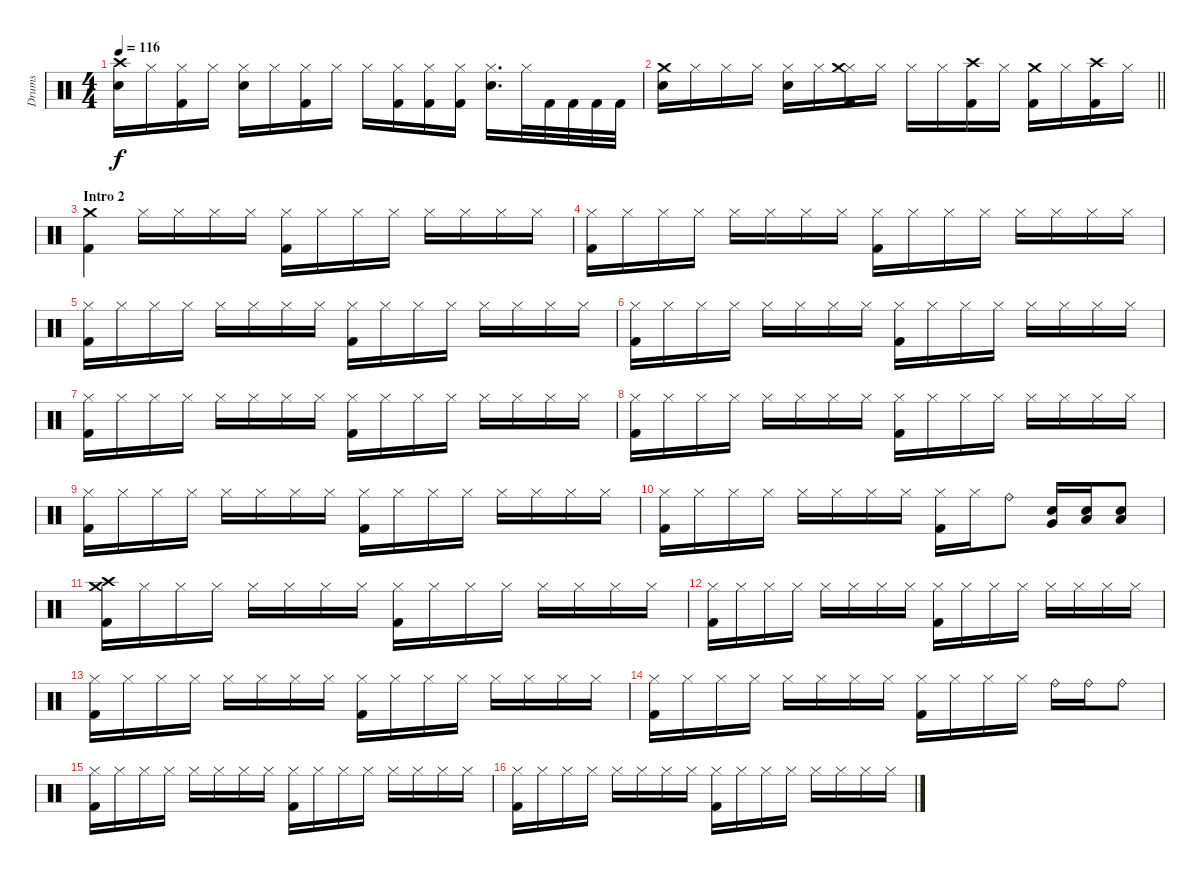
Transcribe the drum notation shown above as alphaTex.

\track ("Drums" "Drums") {instrument percussion}
\staff {score}
\articulation defaults
\ts (4 4)
\tempo 116
\clef neutral
\ks c
("Snare (hit) 2" "Crash high (hit)").16{dy f} "Hi-Hat (closed)".16 ("Hi-Hat (closed)" "Kick (hit) 2").16 "Hi-Hat (closed)".16 ("Hi-Hat (closed)" "Snare (hit) 2").16 "Hi-Hat (closed)".16 ("Hi-Hat (closed)" "Kick (hit) 2").16 "Hi-Hat (closed)".16 "Hi-Hat (closed)".16 ("Hi-Hat (closed)" "Kick (hit) 2").16 ("Hi-Hat (closed)" "Kick (hit) 2").16 ("Hi-Hat (closed)" "Kick (hit) 2").16 ("Hi-Hat (closed)" "Snare (hit) 2").16{d} "Hi-Hat (closed)".32 "Kick (hit) 2".32 "Kick (hit) 2".32 "Kick (hit) 2".32 "Kick (hit) 2".32 |
\barLineRight lightlight
("Snare (hit) 2" "Crash medium (hit)").16 "Hi-Hat (closed)".16 "Hi-Hat (closed)".16 "Hi-Hat (closed)".16 ("Hi-Hat (closed)" "Snare (hit) 2").16 "Hi-Hat (closed)".16 ("Hi-Hat (closed)" "Kick (hit) 2" "Crash medium (hit)").16 "Hi-Hat (closed)".16 "Hi-Hat (closed)".16 "Hi-Hat (closed)".16 ("Kick (hit) 2" "Crash high (hit)").16 "Hi-Hat (closed)".16 ("Kick (hit) 2" "Crash medium (hit)").16 "Hi-Hat (closed)".16 ("Kick (hit) 2" "Crash high (hit)").16 "Hi-Hat (closed)".16 |
\section ("" "Intro 2")
("Kick (hit) 2" "Crash medium (hit)").4 "Hi-Hat (closed)".16 "Hi-Hat (closed)".16 "Hi-Hat (closed)".16 "Hi-Hat (closed)".16 ("Hi-Hat (closed)" "Kick (hit) 2").16 "Hi-Hat (closed)".16 "Hi-Hat (closed)".16 "Hi-Hat (closed)".16 "Hi-Hat (closed)".16 "Hi-Hat (closed)".16 "Hi-Hat (closed)".16 "Hi-Hat (closed)".16 |
("Hi-Hat (closed)" "Kick (hit) 2").16 "Hi-Hat (closed)".16 "Hi-Hat (closed)".16 "Hi-Hat (closed)".16 "Hi-Hat (closed)".16 "Hi-Hat (closed)".16 "Hi-Hat (closed)".16 "Hi-Hat (closed)".16 ("Hi-Hat (closed)" "Kick (hit) 2").16 "Hi-Hat (closed)".16 "Hi-Hat (closed)".16 "Hi-Hat (closed)".16 "Hi-Hat (closed)".16 "Hi-Hat (closed)".16 "Hi-Hat (closed)".16 "Hi-Hat (closed)".16 |
("Hi-Hat (closed)" "Kick (hit) 2").16 "Hi-Hat (closed)".16 "Hi-Hat (closed)".16 "Hi-Hat (closed)".16 "Hi-Hat (closed)".16 "Hi-Hat (closed)".16 "Hi-Hat (closed)".16 "Hi-Hat (closed)".16 ("Hi-Hat (closed)" "Kick (hit) 2").16 "Hi-Hat (closed)".16 "Hi-Hat (closed)".16 "Hi-Hat (closed)".16 "Hi-Hat (closed)".16 "Hi-Hat (closed)".16 "Hi-Hat (closed)".16 "Hi-Hat (closed)".16 |
("Hi-Hat (closed)" "Kick (hit) 2").16 "Hi-Hat (closed)".16 "Hi-Hat (closed)".16 "Hi-Hat (closed)".16 "Hi-Hat (closed)".16 "Hi-Hat (closed)".16 "Hi-Hat (closed)".16 "Hi-Hat (closed)".16 ("Hi-Hat (closed)" "Kick (hit) 2").16 "Hi-Hat (closed)".16 "Hi-Hat (closed)".16 "Hi-Hat (closed)".16 "Hi-Hat (closed)".16 "Hi-Hat (closed)".16 "Hi-Hat (closed)".16 "Hi-Hat (closed)".16 |
("Hi-Hat (closed)" "Kick (hit) 2").16 "Hi-Hat (closed)".16 "Hi-Hat (closed)".16 "Hi-Hat (closed)".16 "Hi-Hat (closed)".16 "Hi-Hat (closed)".16 "Hi-Hat (closed)".16 "Hi-Hat (closed)".16 ("Hi-Hat (closed)" "Kick (hit) 2").16 "Hi-Hat (closed)".16 "Hi-Hat (closed)".16 "Hi-Hat (closed)".16 "Hi-Hat (closed)".16 "Hi-Hat (closed)".16 "Hi-Hat (closed)".16 "Hi-Hat (closed)".16 |
("Hi-Hat (closed)" "Kick (hit) 2").16 "Hi-Hat (closed)".16 "Hi-Hat (closed)".16 "Hi-Hat (closed)".16 "Hi-Hat (closed)".16 "Hi-Hat (closed)".16 "Hi-Hat (closed)".16 "Hi-Hat (closed)".16 ("Hi-Hat (closed)" "Kick (hit) 2").16 "Hi-Hat (closed)".16 "Hi-Hat (closed)".16 "Hi-Hat (closed)".16 "Hi-Hat (closed)".16 "Hi-Hat (closed)".16 "Hi-Hat (closed)".16 "Hi-Hat (closed)".16 |
("Hi-Hat (closed)" "Kick (hit) 2").16 "Hi-Hat (closed)".16 "Hi-Hat (closed)".16 "Hi-Hat (closed)".16 "Hi-Hat (closed)".16 "Hi-Hat (closed)".16 "Hi-Hat (closed)".16 "Hi-Hat (closed)".16 ("Hi-Hat (closed)" "Kick (hit) 2").16 "Hi-Hat (closed)".16 "Hi-Hat (closed)".16 "Hi-Hat (closed)".16 "Hi-Hat (closed)".16 "Hi-Hat (closed)".16 "Hi-Hat (closed)".16 "Hi-Hat (closed)".16 |
("Hi-Hat (closed)" "Kick (hit) 2").16 "Hi-Hat (closed)".16 "Hi-Hat (closed)".16 "Hi-Hat (closed)".16 "Hi-Hat (closed)".16 "Hi-Hat (closed)".16 "Hi-Hat (closed)".16 "Hi-Hat (closed)".16 ("Hi-Hat (closed)" "Kick (hit) 2").16 "Hi-Hat (closed)".16 "Ride (bell)".8 ("Snare (hit) 2" "Very Low Tom (hit)").16 ("Snare (hit) 2" "Low Tom (hit)").16 ("Snare (hit) 2" "Low Tom (hit)").8 |
("Kick (hit) 2" "Crash medium (hit)" "Crash high (hit)").16 "Hi-Hat (closed)".16 "Hi-Hat (closed)".16 "Hi-Hat (closed)".16 "Hi-Hat (closed)".16 "Hi-Hat (closed)".16 "Hi-Hat (closed)".16 "Hi-Hat (closed)".16 ("Hi-Hat (closed)" "Kick (hit) 2").16 "Hi-Hat (closed)".16 "Hi-Hat (closed)".16 "Hi-Hat (closed)".16 "Hi-Hat (closed)".16 "Hi-Hat (closed)".16 "Hi-Hat (closed)".16 "Hi-Hat (closed)".16 |
("Hi-Hat (closed)" "Kick (hit) 2").16 "Hi-Hat (closed)".16 "Hi-Hat (closed)".16 "Hi-Hat (closed)".16 "Hi-Hat (closed)".16 "Hi-Hat (closed)".16 "Hi-Hat (closed)".16 "Hi-Hat (closed)".16 ("Hi-Hat (closed)" "Kick (hit) 2").16 "Hi-Hat (closed)".16 "Hi-Hat (closed)".16 "Hi-Hat (closed)".16 "Hi-Hat (closed)".16 "Hi-Hat (closed)".16 "Hi-Hat (closed)".16 "Hi-Hat (closed)".16 |
("Hi-Hat (closed)" "Kick (hit) 2").16 "Hi-Hat (closed)".16 "Hi-Hat (closed)".16 "Hi-Hat (closed)".16 "Hi-Hat (closed)".16 "Hi-Hat (closed)".16 "Hi-Hat (closed)".16 "Hi-Hat (closed)".16 ("Hi-Hat (closed)" "Kick (hit) 2").16 "Hi-Hat (closed)".16 "Hi-Hat (closed)".16 "Hi-Hat (closed)".16 "Hi-Hat (closed)".16 "Hi-Hat (closed)".16 "Hi-Hat (closed)".16 "Hi-Hat (closed)".16 |
("Hi-Hat (closed)" "Kick (hit) 2").16 "Hi-Hat (closed)".16 "Hi-Hat (closed)".16 "Hi-Hat (closed)".16 "Hi-Hat (closed)".16 "Hi-Hat (closed)".16 "Hi-Hat (closed)".16 "Hi-Hat (closed)".16 ("Hi-Hat (closed)" "Kick (hit) 2").16 "Hi-Hat (closed)".16 "Hi-Hat (closed)".16 "Hi-Hat (closed)".16 "Ride (bell)".16 "Ride (bell)".16 "Ride (bell)".8 |
("Hi-Hat (closed)" "Kick (hit) 2").16 "Hi-Hat (closed)".16 "Hi-Hat (closed)".16 "Hi-Hat (closed)".16 "Hi-Hat (closed)".16 "Hi-Hat (closed)".16 "Hi-Hat (closed)".16 "Hi-Hat (closed)".16 ("Hi-Hat (closed)" "Kick (hit) 2").16 "Hi-Hat (closed)".16 "Hi-Hat (closed)".16 "Hi-Hat (closed)".16 "Hi-Hat (closed)".16 "Hi-Hat (closed)".16 "Hi-Hat (closed)".16 "Hi-Hat (closed)".16 |
("Hi-Hat (closed)" "Kick (hit) 2").16 "Hi-Hat (closed)".16 "Hi-Hat (closed)".16 "Hi-Hat (closed)".16 "Hi-Hat (closed)".16 "Hi-Hat (closed)".16 "Hi-Hat (closed)".16 "Hi-Hat (closed)".16 ("Hi-Hat (closed)" "Kick (hit) 2").16 "Hi-Hat (closed)".16 "Hi-Hat (closed)".16 "Hi-Hat (closed)".16 "Hi-Hat (closed)".16 "Hi-Hat (closed)".16 "Hi-Hat (closed)".16 "Hi-Hat (closed)".16
